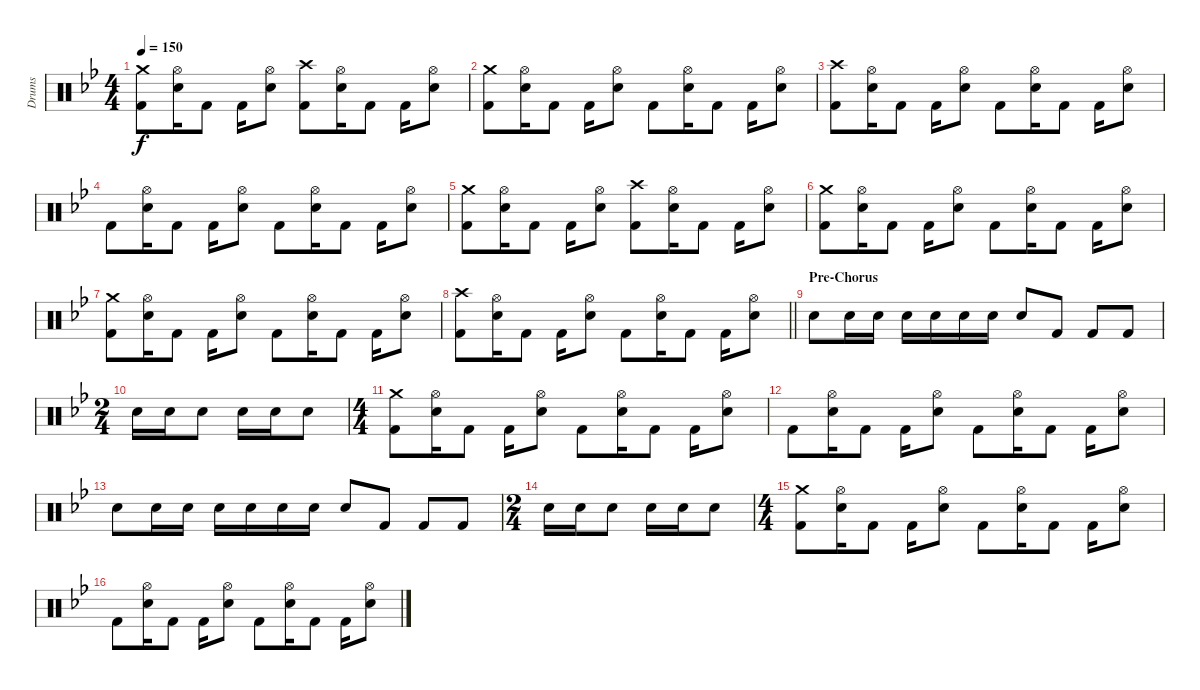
\track ("Drums" "Drums") {instrument percussion}
\staff {score}
\articulation defaults
\ts (4 4)
\tempo 150
\clef neutral
\ks bb
("Crash medium (hit)" "Kick (hit) 2").8{dy f} ("Hi-Hat (open)" "Snare (hit) 2").16 "Kick (hit) 2".8 "Kick (hit) 2".16 ("Hi-Hat (open)" "Snare (hit) 2").8 ("Crash high (hit)" "Kick (hit) 2").8 ("Hi-Hat (open)" "Snare (hit) 2").16 "Kick (hit) 2".8 "Kick (hit) 2".16 ("Hi-Hat (open)" "Snare (hit) 2").8 |
("Crash medium (hit)" "Kick (hit) 2").8 ("Hi-Hat (open)" "Snare (hit) 2").16 "Kick (hit) 2".8 "Kick (hit) 2".16 ("Hi-Hat (open)" "Snare (hit) 2").8 "Kick (hit) 2".8 ("Hi-Hat (open)" "Snare (hit) 2").16 "Kick (hit) 2".8 "Kick (hit) 2".16 ("Hi-Hat (open)" "Snare (hit) 2").8 |
("Crash high (hit)" "Kick (hit) 2").8 ("Hi-Hat (open)" "Snare (hit) 2").16 "Kick (hit) 2".8 "Kick (hit) 2".16 ("Hi-Hat (open)" "Snare (hit) 2").8 "Kick (hit) 2".8 ("Hi-Hat (open)" "Snare (hit) 2").16 "Kick (hit) 2".8 "Kick (hit) 2".16 ("Hi-Hat (open)" "Snare (hit) 2").8 |
"Kick (hit) 2".8 ("Hi-Hat (open)" "Snare (hit) 2").16 "Kick (hit) 2".8 "Kick (hit) 2".16 ("Hi-Hat (open)" "Snare (hit) 2").8 "Kick (hit) 2".8 ("Hi-Hat (open)" "Snare (hit) 2").16 "Kick (hit) 2".8 "Kick (hit) 2".16 ("Hi-Hat (open)" "Snare (hit) 2").8 |
("Crash medium (hit)" "Kick (hit) 2").8 ("Hi-Hat (open)" "Snare (hit) 2").16 "Kick (hit) 2".8 "Kick (hit) 2".16 ("Hi-Hat (open)" "Snare (hit) 2").8 ("Crash high (hit)" "Kick (hit) 2").8 ("Hi-Hat (open)" "Snare (hit) 2").16 "Kick (hit) 2".8 "Kick (hit) 2".16 ("Hi-Hat (open)" "Snare (hit) 2").8 |
("Crash medium (hit)" "Kick (hit) 2").8 ("Hi-Hat (open)" "Snare (hit) 2").16 "Kick (hit) 2".8 "Kick (hit) 2".16 ("Hi-Hat (open)" "Snare (hit) 2").8 "Kick (hit) 2".8 ("Hi-Hat (open)" "Snare (hit) 2").16 "Kick (hit) 2".8 "Kick (hit) 2".16 ("Hi-Hat (open)" "Snare (hit) 2").8 |
("Crash medium (hit)" "Kick (hit) 2").8 ("Hi-Hat (open)" "Snare (hit) 2").16 "Kick (hit) 2".8 "Kick (hit) 2".16 ("Hi-Hat (open)" "Snare (hit) 2").8 "Kick (hit) 2".8 ("Hi-Hat (open)" "Snare (hit) 2").16 "Kick (hit) 2".8 "Kick (hit) 2".16 ("Hi-Hat (open)" "Snare (hit) 2").8 |
\barLineRight lightlight
("Crash high (hit)" "Kick (hit) 2").8 ("Hi-Hat (open)" "Snare (hit) 2").16 "Kick (hit) 2".8 "Kick (hit) 2".16 ("Hi-Hat (open)" "Snare (hit) 2").8 "Kick (hit) 2".8 ("Hi-Hat (open)" "Snare (hit) 2").16 "Kick (hit) 2".8 "Kick (hit) 2".16 ("Hi-Hat (open)" "Snare (hit) 2").8 |
\section ("" "Pre-Chorus")
"Snare (hit) 2".8 "Snare (hit) 2".16 "Snare (hit) 2".16 "Snare (hit) 2".16 "Snare (hit) 2".16 "Snare (hit) 2".16 "Snare (hit) 2".16 "Snare (hit) 2".8 "Kick (hit) 2".8 "Kick (hit) 2".8 "Kick (hit) 2".8 |
\ts (2 4)
"Snare (hit) 2".16 "Snare (hit) 2".16 "Snare (hit) 2".8 "Snare (hit) 2".16 "Snare (hit) 2".16 "Snare (hit) 2".8 |
\ts (4 4)
("Crash medium (hit)" "Kick (hit) 2").8 ("Hi-Hat (open)" "Snare (hit) 2").16 "Kick (hit) 2".8 "Kick (hit) 2".16 ("Hi-Hat (open)" "Snare (hit) 2").8 "Kick (hit) 2".8 ("Hi-Hat (open)" "Snare (hit) 2").16 "Kick (hit) 2".8 "Kick (hit) 2".16 ("Hi-Hat (open)" "Snare (hit) 2").8 |
"Kick (hit) 2".8 ("Hi-Hat (open)" "Snare (hit) 2").16 "Kick (hit) 2".8 "Kick (hit) 2".16 ("Hi-Hat (open)" "Snare (hit) 2").8 "Kick (hit) 2".8 ("Hi-Hat (open)" "Snare (hit) 2").16 "Kick (hit) 2".8 "Kick (hit) 2".16 ("Hi-Hat (open)" "Snare (hit) 2").8 |
"Snare (hit) 2".8 "Snare (hit) 2".16 "Snare (hit) 2".16 "Snare (hit) 2".16 "Snare (hit) 2".16 "Snare (hit) 2".16 "Snare (hit) 2".16 "Snare (hit) 2".8 "Kick (hit) 2".8 "Kick (hit) 2".8 "Kick (hit) 2".8 |
\ts (2 4)
"Snare (hit) 2".16 "Snare (hit) 2".16 "Snare (hit) 2".8 "Snare (hit) 2".16 "Snare (hit) 2".16 "Snare (hit) 2".8 |
\ts (4 4)
("Crash medium (hit)" "Kick (hit) 2").8 ("Hi-Hat (open)" "Snare (hit) 2").16 "Kick (hit) 2".8 "Kick (hit) 2".16 ("Hi-Hat (open)" "Snare (hit) 2").8 "Kick (hit) 2".8 ("Hi-Hat (open)" "Snare (hit) 2").16 "Kick (hit) 2".8 "Kick (hit) 2".16 ("Hi-Hat (open)" "Snare (hit) 2").8 |
"Kick (hit) 2".8 ("Hi-Hat (open)" "Snare (hit) 2").16 "Kick (hit) 2".8 "Kick (hit) 2".16 ("Hi-Hat (open)" "Snare (hit) 2").8 "Kick (hit) 2".8 ("Hi-Hat (open)" "Snare (hit) 2").16 "Kick (hit) 2".8 "Kick (hit) 2".16 ("Hi-Hat (open)" "Snare (hit) 2").8
